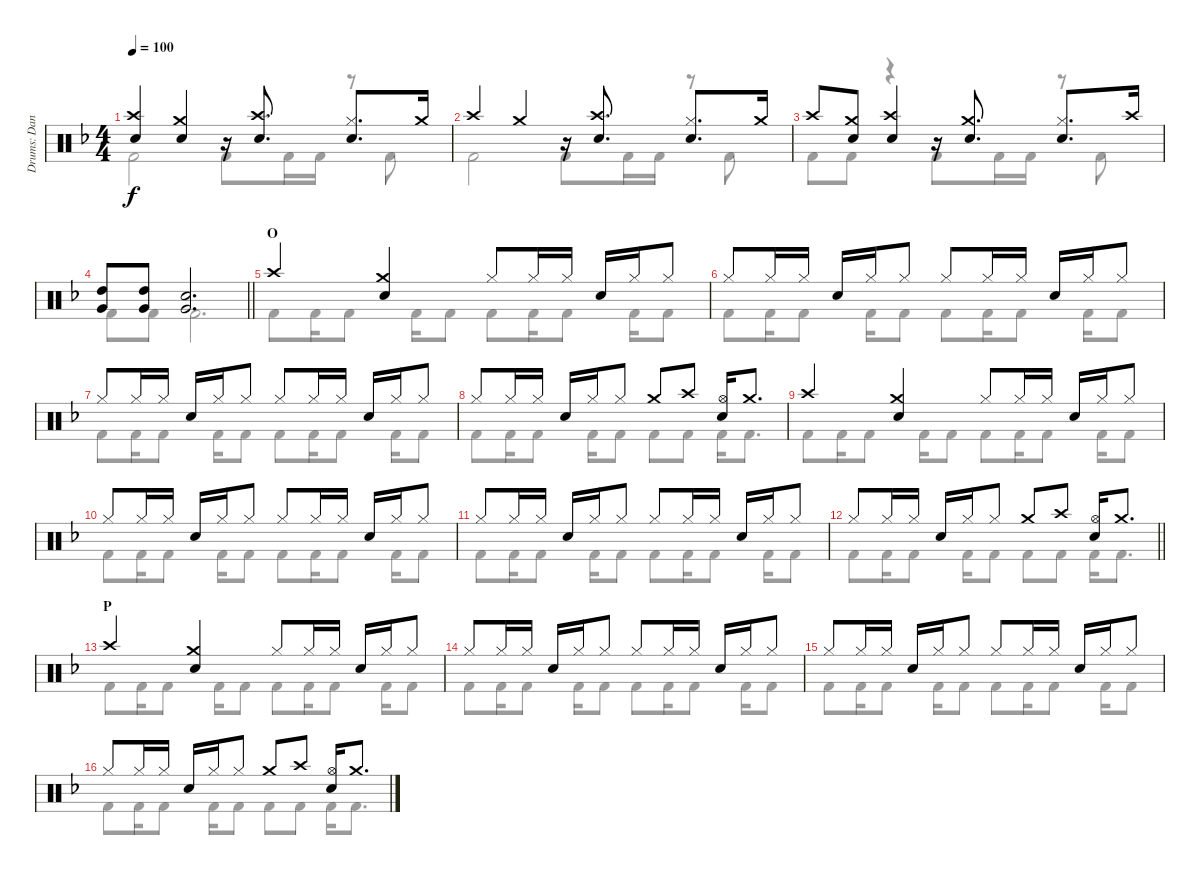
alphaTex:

\track ("Drums: Dana" "Drums: Dan") {instrument percussion}
\staff {score}
\articulation defaults
\voice
\ts (4 4)
\tempo 100
\clef neutral
\ks f
("Crash high (hit)" "Snare (hit) 2").4{dy f} ("Crash medium (hit)" "Snare (hit) 2").4 r.16 ("Crash high (hit)" "Snare (hit) 2").8{d} ("Hi-Hat (closed)" "Snare (hit) 2").8{d} "Crash medium (hit)".16 |
"Crash high (hit)".4 "Crash medium (hit)".4 r.16 ("Crash high (hit)" "Snare (hit) 2").8{d} ("Hi-Hat (closed)" "Snare (hit) 2").8{d} "Crash medium (hit)".16 |
"Crash high (hit)".8 ("Crash medium (hit)" "Snare (hit) 2").8 ("Crash high (hit)" "Snare (hit) 2").4 r.16 ("Crash medium (hit)" "Snare (hit) 2").8{d} ("Hi-Hat (closed)" "Snare (hit) 2").8{d} "Crash high (hit)".16 |
\barLineRight lightlight
("High Tom (hit)" "Very Low Tom (hit)").8 ("High Tom (hit)" "Very Low Tom (hit)").8 ("Snare (hit) 2" "Very Low Tom (hit)").2{d} |
\section ("" "O")
"Crash high (hit)".4 ("Crash medium (hit)" "Snare (hit) 2").4 "Hi-Hat (closed)".8 "Hi-Hat (closed)".16 "Hi-Hat (closed)".16 "Snare (hit) 2".16 "Hi-Hat (closed)".16 "Hi-Hat (closed)".8 |
"Hi-Hat (closed)".8 "Hi-Hat (closed)".16 "Hi-Hat (closed)".16 "Snare (hit) 2".16 "Hi-Hat (closed)".16 "Hi-Hat (closed)".8 "Hi-Hat (closed)".8 "Hi-Hat (closed)".16 "Hi-Hat (closed)".16 "Snare (hit) 2".16 "Hi-Hat (closed)".16 "Hi-Hat (closed)".8 |
"Hi-Hat (closed)".8 "Hi-Hat (closed)".16 "Hi-Hat (closed)".16 "Snare (hit) 2".16 "Hi-Hat (closed)".16 "Hi-Hat (closed)".8 "Hi-Hat (closed)".8 "Hi-Hat (closed)".16 "Hi-Hat (closed)".16 "Snare (hit) 2".16 "Hi-Hat (closed)".16 "Hi-Hat (closed)".8 |
"Hi-Hat (closed)".8 "Hi-Hat (closed)".16 "Hi-Hat (closed)".16 "Snare (hit) 2".16 "Hi-Hat (closed)".16 "Hi-Hat (closed)".8 "Crash medium (hit)".8 "Crash high (hit)".8 ("Hi-Hat (open)" "Snare (hit) 2").16 "Crash medium (hit)".8{d} |
"Crash high (hit)".4 ("Crash medium (hit)" "Snare (hit) 2").4 "Hi-Hat (closed)".8 "Hi-Hat (closed)".16 "Hi-Hat (closed)".16 "Snare (hit) 2".16 "Hi-Hat (closed)".16 "Hi-Hat (closed)".8 |
"Hi-Hat (closed)".8 "Hi-Hat (closed)".16 "Hi-Hat (closed)".16 "Snare (hit) 2".16 "Hi-Hat (closed)".16 "Hi-Hat (closed)".8 "Hi-Hat (closed)".8 "Hi-Hat (closed)".16 "Hi-Hat (closed)".16 "Snare (hit) 2".16 "Hi-Hat (closed)".16 "Hi-Hat (closed)".8 |
"Hi-Hat (closed)".8 "Hi-Hat (closed)".16 "Hi-Hat (closed)".16 "Snare (hit) 2".16 "Hi-Hat (closed)".16 "Hi-Hat (closed)".8 "Hi-Hat (closed)".8 "Hi-Hat (closed)".16 "Hi-Hat (closed)".16 "Snare (hit) 2".16 "Hi-Hat (closed)".16 "Hi-Hat (closed)".8 |
\barLineRight lightlight "Hi-Hat (closed)".8 "Hi-Hat (closed)".16 "Hi-Hat (closed)".16 "Snare (hit) 2".16 "Hi-Hat (closed)".16 "Hi-Hat (closed)".8 "Crash medium (hit)".8 "Crash high (hit)".8
("Hi-Hat (open)" "Snare (hit) 2").16 "Crash medium (hit)".8{d} |
\section ("" "P")
"Crash high (hit)".4 ("Crash medium (hit)" "Snare (hit) 2").4 "Hi-Hat (closed)".8 "Hi-Hat (closed)".16 "Hi-Hat (closed)".16 "Snare (hit) 2".16 "Hi-Hat (closed)".16 "Hi-Hat (closed)".8 |
"Hi-Hat (closed)".8 "Hi-Hat (closed)".16 "Hi-Hat (closed)".16 "Snare (hit) 2".16 "Hi-Hat (closed)".16 "Hi-Hat (closed)".8 "Hi-Hat (closed)".8 "Hi-Hat (closed)".16 "Hi-Hat (closed)".16 "Snare (hit) 2".16 "Hi-Hat (closed)".16 "Hi-Hat (closed)".8 |
"Hi-Hat (closed)".8 "Hi-Hat (closed)".16 "Hi-Hat (closed)".16 "Snare (hit) 2".16 "Hi-Hat (closed)".16 "Hi-Hat (closed)".8 "Hi-Hat (closed)".8 "Hi-Hat (closed)".16 "Hi-Hat (closed)".16 "Snare (hit) 2".16 "Hi-Hat (closed)".16 "Hi-Hat (closed)".8 |
"Hi-Hat (closed)".8 "Hi-Hat (closed)".16 "Hi-Hat (closed)".16 "Snare (hit) 2".16 "Hi-Hat (closed)".16 "Hi-Hat (closed)".8 "Crash medium (hit)".8 "Crash high (hit)".8 ("Hi-Hat (open)" "Snare (hit) 2").16 "Crash medium (hit)".8{d}
\voice
\clef neutral
\ottava regular
\simile none
\ks f "Kick (hit) 2".2{dy f} "Kick (hit) 2".8 "Kick (hit) 2".16 "Kick (hit) 2".16
r.8 "Kick (hit) 2".8 |
"Kick (hit) 2".2 "Kick (hit) 2".8 "Kick (hit) 2".16 "Kick (hit) 2".16 r.8 "Kick (hit) 2".8 |
"Kick (hit) 2".8 "Kick (hit) 2".8 r.4 "Kick (hit) 2".8 "Kick (hit) 2".16 "Kick (hit) 2".16 r.8 "Kick (hit) 2".8 |
\barLineRight lightlight "Kick (hit) 2".8 "Kick (hit) 2".8 "Kick (hit) 2".2{d}
|
"Kick (hit) 2".8 "Kick (hit) 2".16 "Kick (hit) 2".8 "Kick (hit) 2".16 "Kick (hit) 2".8 "Kick (hit) 2".8 "Kick (hit) 2".16 "Kick (hit) 2".8 "Kick (hit) 2".16 "Kick (hit) 2".8 |
"Kick (hit) 2".8 "Kick (hit) 2".16 "Kick (hit) 2".8 "Kick (hit) 2".16 "Kick (hit) 2".8 "Kick (hit) 2".8 "Kick (hit) 2".16 "Kick (hit) 2".8 "Kick (hit) 2".16 "Kick (hit) 2".8 |
"Kick (hit) 2".8 "Kick (hit) 2".16 "Kick (hit) 2".8 "Kick (hit) 2".16 "Kick (hit) 2".8 "Kick (hit) 2".8 "Kick (hit) 2".16 "Kick (hit) 2".8 "Kick (hit) 2".16 "Kick (hit) 2".8 |
"Kick (hit) 2".8 "Kick (hit) 2".16 "Kick (hit) 2".8 "Kick (hit) 2".16 "Kick (hit) 2".8 "Kick (hit) 2".8 "Kick (hit) 2".8 "Kick (hit) 2".16 "Kick (hit) 2".8{d} |
"Kick (hit) 2".8 "Kick (hit) 2".16 "Kick (hit) 2".8 "Kick (hit) 2".16 "Kick (hit) 2".8 "Kick (hit) 2".8 "Kick (hit) 2".16 "Kick (hit) 2".8 "Kick (hit) 2".16 "Kick (hit) 2".8 |
"Kick (hit) 2".8 "Kick (hit) 2".16 "Kick (hit) 2".8 "Kick (hit) 2".16 "Kick (hit) 2".8 "Kick (hit) 2".8 "Kick (hit) 2".16 "Kick (hit) 2".8 "Kick (hit) 2".16 "Kick (hit) 2".8 |
"Kick (hit) 2".8 "Kick (hit) 2".16 "Kick (hit) 2".8 "Kick (hit) 2".16 "Kick (hit) 2".8 "Kick (hit) 2".8 "Kick (hit) 2".16 "Kick (hit) 2".8 "Kick (hit) 2".16 "Kick (hit) 2".8 |
\barLineRight lightlight "Kick (hit) 2".8 "Kick (hit) 2".16 "Kick (hit) 2".8 "Kick (hit) 2".16 "Kick (hit) 2".8 "Kick (hit) 2".8 "Kick (hit) 2".8 "Kick (hit) 2".16 "Kick (hit) 2".8{d}
|
"Kick (hit) 2".8 "Kick (hit) 2".16 "Kick (hit) 2".8 "Kick (hit) 2".16 "Kick (hit) 2".8 "Kick (hit) 2".8 "Kick (hit) 2".16 "Kick (hit) 2".8 "Kick (hit) 2".16 "Kick (hit) 2".8 |
"Kick (hit) 2".8 "Kick (hit) 2".16 "Kick (hit) 2".8 "Kick (hit) 2".16 "Kick (hit) 2".8 "Kick (hit) 2".8 "Kick (hit) 2".16 "Kick (hit) 2".8 "Kick (hit) 2".16 "Kick (hit) 2".8 |
"Kick (hit) 2".8 "Kick (hit) 2".16 "Kick (hit) 2".8 "Kick (hit) 2".16 "Kick (hit) 2".8 "Kick (hit) 2".8 "Kick (hit) 2".16 "Kick (hit) 2".8 "Kick (hit) 2".16 "Kick (hit) 2".8 |
"Kick (hit) 2".8 "Kick (hit) 2".16 "Kick (hit) 2".8 "Kick (hit) 2".16 "Kick (hit) 2".8 "Kick (hit) 2".8 "Kick (hit) 2".8 "Kick (hit) 2".16 "Kick (hit) 2".8{d}
